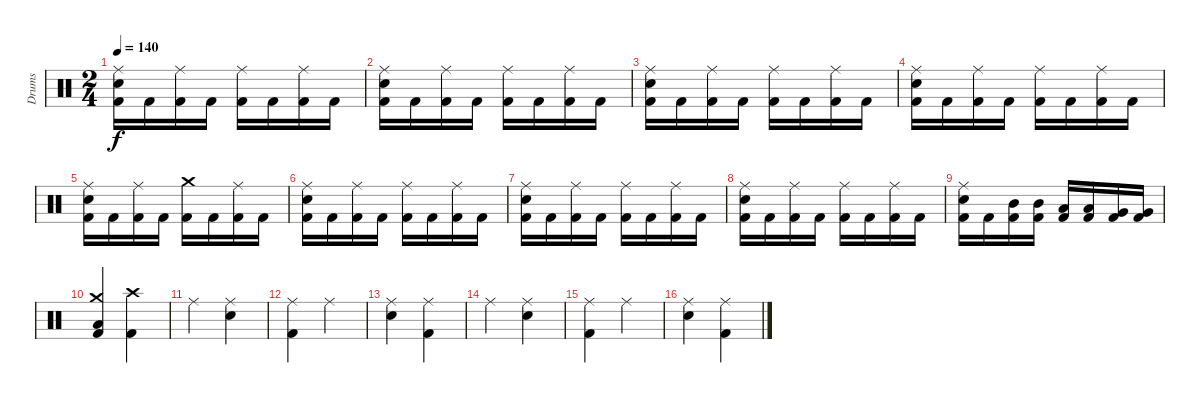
\track ("Drums" "Drums") {instrument percussion}
\staff {score}
\articulation defaults
\ts (2 4)
\tempo 140
\clef neutral
\ks c
("Kick (hit) 2" "Electric Snare (hit)" "Ride (middle)").16{dy f} "Kick (hit) 2".16 ("Kick (hit) 2" "Ride (middle)").16 "Kick (hit) 2".16 ("Kick (hit) 2" "Ride (middle)").16 "Kick (hit) 2".16 ("Kick (hit) 2" "Ride (middle)").16 "Kick (hit) 2".16 |
("Kick (hit) 2" "Electric Snare (hit)" "Ride (middle)").16 "Kick (hit) 2".16 ("Kick (hit) 2" "Ride (middle)").16 "Kick (hit) 2".16 ("Kick (hit) 2" "Ride (middle)").16 "Kick (hit) 2".16 ("Kick (hit) 2" "Ride (middle)").16 "Kick (hit) 2".16 |
("Kick (hit) 2" "Electric Snare (hit)" "Ride (middle)").16 "Kick (hit) 2".16 ("Kick (hit) 2" "Ride (middle)").16 "Kick (hit) 2".16 ("Kick (hit) 2" "Ride (middle)").16 "Kick (hit) 2".16 ("Kick (hit) 2" "Ride (middle)").16 "Kick (hit) 2".16 |
("Kick (hit) 2" "Electric Snare (hit)" "Ride (middle)").16 "Kick (hit) 2".16 ("Kick (hit) 2" "Ride (middle)").16 "Kick (hit) 2".16 ("Kick (hit) 2" "Ride (middle)").16 "Kick (hit) 2".16 ("Kick (hit) 2" "Ride (middle)").16 "Kick (hit) 2".16 |
("Kick (hit) 2" "Electric Snare (hit)" "Ride (middle)").16 "Kick (hit) 2".16 ("Kick (hit) 2" "Ride (middle)").16 "Kick (hit) 2".16 ("Kick (hit) 2" "Crash medium (hit)").16 "Kick (hit) 2".16 ("Kick (hit) 2" "Ride (middle)").16 "Kick (hit) 2".16 |
("Kick (hit) 2" "Electric Snare (hit)" "Ride (middle)").16 "Kick (hit) 2".16 ("Kick (hit) 2" "Ride (middle)").16 "Kick (hit) 2".16 ("Kick (hit) 2" "Ride (middle)").16 "Kick (hit) 2".16 ("Kick (hit) 2" "Ride (middle)").16 "Kick (hit) 2".16 |
("Kick (hit) 2" "Electric Snare (hit)" "Ride (middle)").16 "Kick (hit) 2".16 ("Kick (hit) 2" "Ride (middle)").16 "Kick (hit) 2".16 ("Kick (hit) 2" "Ride (middle)").16 "Kick (hit) 2".16 ("Kick (hit) 2" "Ride (middle)").16 "Kick (hit) 2".16 |
("Kick (hit) 2" "Electric Snare (hit)" "Ride (middle)").16 "Kick (hit) 2".16 ("Kick (hit) 2" "Ride (middle)").16 "Kick (hit) 2".16 ("Kick (hit) 2" "Ride (middle)").16 "Kick (hit) 2".16 ("Kick (hit) 2" "Ride (middle)").16 "Kick (hit) 2".16 |
("Kick (hit) 2" "Electric Snare (hit)" "Ride (middle)").16 "Kick (hit) 2".16 ("Kick (hit) 2" "Mid Tom (hit)").16 ("Kick (hit) 2" "Mid Tom (hit)").16 ("Kick (hit) 2" "Low Tom (hit)").16 ("Kick (hit) 2" "Low Tom (hit)").16 ("Kick (hit) 2" "Very Low Tom (hit)").16 ("Kick (hit) 2" "Very Low Tom (hit)").16 |
("Kick (hit) 2" "Low Floor Tom (hit)" "Crash medium (hit)").4 ("Kick (hit) 2" "Crash high (hit)").4 |
"Ride (middle)".4 ("Electric Snare (hit)" "Ride (middle)").4 |
("Kick (hit) 2" "Ride (middle)").4 "Ride (middle)".4 |
("Electric Snare (hit)" "Ride (middle)").4 ("Kick (hit) 2" "Ride (middle)").4 |
"Ride (middle)".4 ("Electric Snare (hit)" "Ride (middle)").4 |
("Kick (hit) 2" "Ride (middle)").4 "Ride (middle)".4 |
("Electric Snare (hit)" "Ride (middle)").4 ("Kick (hit) 2" "Ride (middle)").4
